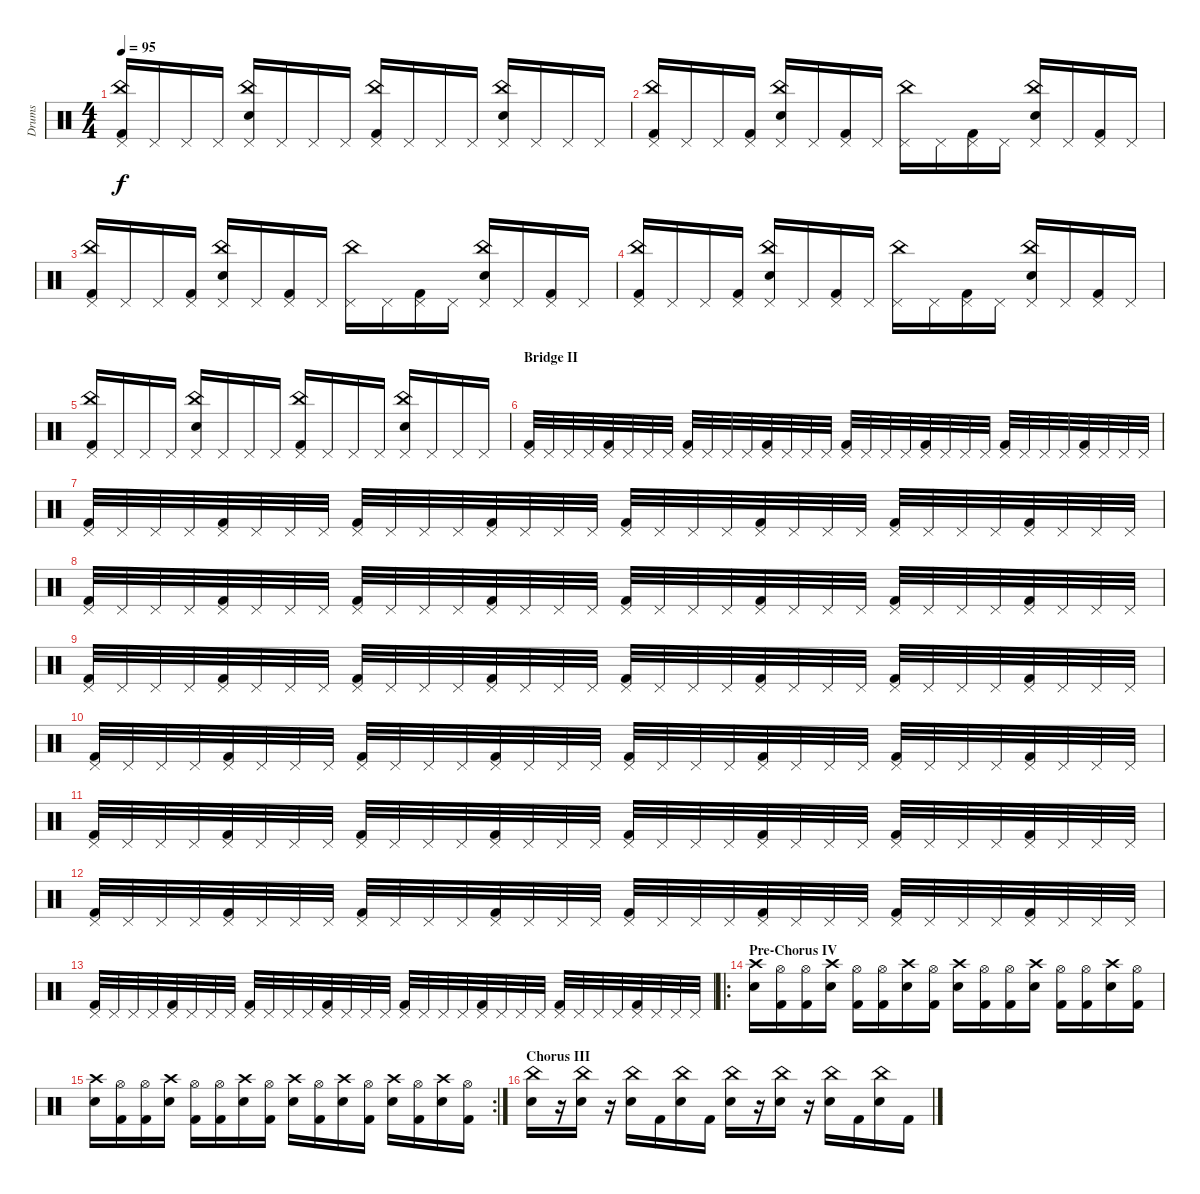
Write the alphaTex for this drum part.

\track ("Drums" "Drums") {instrument percussion}
\staff {score}
\articulation defaults
\ts (4 4)
\tempo 95
\clef neutral
\ks c
("Pedal Hi-Hat (hit)" "China (hit)" "Kick (hit) 2").16{dy f} "Pedal Hi-Hat (hit)".16 "Pedal Hi-Hat (hit)".16 "Pedal Hi-Hat (hit)".16 ("Pedal Hi-Hat (hit)" "China (hit)" "Electric Snare (hit)").16 "Pedal Hi-Hat (hit)".16 "Pedal Hi-Hat (hit)".16 "Pedal Hi-Hat (hit)".16 ("Pedal Hi-Hat (hit)" "China (hit)" "Kick (hit) 2").16 "Pedal Hi-Hat (hit)".16 "Pedal Hi-Hat (hit)".16 "Pedal Hi-Hat (hit)".16 ("Pedal Hi-Hat (hit)" "China (hit)" "Electric Snare (hit)").16 "Pedal Hi-Hat (hit)".16 "Pedal Hi-Hat (hit)".16 "Pedal Hi-Hat (hit)".16 |
("Pedal Hi-Hat (hit)" "China (hit)" "Kick (hit) 2").16 "Pedal Hi-Hat (hit)".16 "Pedal Hi-Hat (hit)".16 ("Pedal Hi-Hat (hit)" "Kick (hit) 2").16 ("Pedal Hi-Hat (hit)" "China (hit)" "Electric Snare (hit)").16 "Pedal Hi-Hat (hit)".16 ("Pedal Hi-Hat (hit)" "Kick (hit) 2").16 "Pedal Hi-Hat (hit)".16 ("Pedal Hi-Hat (hit)" "China (hit)").16 "Pedal Hi-Hat (hit)".16 ("Pedal Hi-Hat (hit)" "Kick (hit) 2").16 "Pedal Hi-Hat (hit)".16 ("Pedal Hi-Hat (hit)" "China (hit)" "Electric Snare (hit)").16 "Pedal Hi-Hat (hit)".16 ("Pedal Hi-Hat (hit)" "Kick (hit) 2").16 "Pedal Hi-Hat (hit)".16 |
("Pedal Hi-Hat (hit)" "China (hit)" "Kick (hit) 2").16 "Pedal Hi-Hat (hit)".16 "Pedal Hi-Hat (hit)".16 ("Pedal Hi-Hat (hit)" "Kick (hit) 2").16 ("Pedal Hi-Hat (hit)" "China (hit)" "Electric Snare (hit)").16 "Pedal Hi-Hat (hit)".16 ("Pedal Hi-Hat (hit)" "Kick (hit) 2").16 "Pedal Hi-Hat (hit)".16 ("Pedal Hi-Hat (hit)" "China (hit)").16 "Pedal Hi-Hat (hit)".16 ("Pedal Hi-Hat (hit)" "Kick (hit) 2").16 "Pedal Hi-Hat (hit)".16 ("Pedal Hi-Hat (hit)" "China (hit)" "Electric Snare (hit)").16 "Pedal Hi-Hat (hit)".16 ("Pedal Hi-Hat (hit)" "Kick (hit) 2").16 "Pedal Hi-Hat (hit)".16 |
("Pedal Hi-Hat (hit)" "China (hit)" "Kick (hit) 2").16 "Pedal Hi-Hat (hit)".16 "Pedal Hi-Hat (hit)".16 ("Pedal Hi-Hat (hit)" "Kick (hit) 2").16 ("Pedal Hi-Hat (hit)" "China (hit)" "Electric Snare (hit)").16 "Pedal Hi-Hat (hit)".16 ("Pedal Hi-Hat (hit)" "Kick (hit) 2").16 "Pedal Hi-Hat (hit)".16 ("Pedal Hi-Hat (hit)" "China (hit)").16 "Pedal Hi-Hat (hit)".16 ("Pedal Hi-Hat (hit)" "Kick (hit) 2").16 "Pedal Hi-Hat (hit)".16 ("Pedal Hi-Hat (hit)" "China (hit)" "Electric Snare (hit)").16 "Pedal Hi-Hat (hit)".16 ("Pedal Hi-Hat (hit)" "Kick (hit) 2").16 "Pedal Hi-Hat (hit)".16 |
("Pedal Hi-Hat (hit)" "China (hit)" "Kick (hit) 2").16 "Pedal Hi-Hat (hit)".16 "Pedal Hi-Hat (hit)".16 "Pedal Hi-Hat (hit)".16 ("Pedal Hi-Hat (hit)" "China (hit)" "Electric Snare (hit)").16 "Pedal Hi-Hat (hit)".16 "Pedal Hi-Hat (hit)".16 "Pedal Hi-Hat (hit)".16 ("Pedal Hi-Hat (hit)" "China (hit)" "Kick (hit) 2").16 "Pedal Hi-Hat (hit)".16 "Pedal Hi-Hat (hit)".16 "Pedal Hi-Hat (hit)".16 ("Pedal Hi-Hat (hit)" "China (hit)" "Electric Snare (hit)").16 "Pedal Hi-Hat (hit)".16 "Pedal Hi-Hat (hit)".16 "Pedal Hi-Hat (hit)".16 |
\section ("" "Bridge II")
("Pedal Hi-Hat (hit)" "Kick (hit) 2").32 "Pedal Hi-Hat (hit)".32 "Pedal Hi-Hat (hit)".32 "Pedal Hi-Hat (hit)".32 ("Pedal Hi-Hat (hit)" "Kick (hit) 2").32 "Pedal Hi-Hat (hit)".32 "Pedal Hi-Hat (hit)".32 "Pedal Hi-Hat (hit)".32 ("Pedal Hi-Hat (hit)" "Kick (hit) 2").32 "Pedal Hi-Hat (hit)".32 "Pedal Hi-Hat (hit)".32 "Pedal Hi-Hat (hit)".32 ("Pedal Hi-Hat (hit)" "Kick (hit) 2").32 "Pedal Hi-Hat (hit)".32 "Pedal Hi-Hat (hit)".32 "Pedal Hi-Hat (hit)".32 ("Pedal Hi-Hat (hit)" "Kick (hit) 2").32 "Pedal Hi-Hat (hit)".32 "Pedal Hi-Hat (hit)".32 "Pedal Hi-Hat (hit)".32 ("Pedal Hi-Hat (hit)" "Kick (hit) 2").32 "Pedal Hi-Hat (hit)".32 "Pedal Hi-Hat (hit)".32 "Pedal Hi-Hat (hit)".32 ("Pedal Hi-Hat (hit)" "Kick (hit) 2").32 "Pedal Hi-Hat (hit)".32 "Pedal Hi-Hat (hit)".32 "Pedal Hi-Hat (hit)".32 ("Pedal Hi-Hat (hit)" "Kick (hit) 2").32 "Pedal Hi-Hat (hit)".32 "Pedal Hi-Hat (hit)".32 "Pedal Hi-Hat (hit)".32 |
("Pedal Hi-Hat (hit)" "Kick (hit) 2").32 "Pedal Hi-Hat (hit)".32 "Pedal Hi-Hat (hit)".32 "Pedal Hi-Hat (hit)".32 ("Pedal Hi-Hat (hit)" "Kick (hit) 2").32 "Pedal Hi-Hat (hit)".32 "Pedal Hi-Hat (hit)".32 "Pedal Hi-Hat (hit)".32 ("Pedal Hi-Hat (hit)" "Kick (hit) 2").32 "Pedal Hi-Hat (hit)".32 "Pedal Hi-Hat (hit)".32 "Pedal Hi-Hat (hit)".32 ("Pedal Hi-Hat (hit)" "Kick (hit) 2").32 "Pedal Hi-Hat (hit)".32 "Pedal Hi-Hat (hit)".32 "Pedal Hi-Hat (hit)".32 ("Pedal Hi-Hat (hit)" "Kick (hit) 2").32 "Pedal Hi-Hat (hit)".32 "Pedal Hi-Hat (hit)".32 "Pedal Hi-Hat (hit)".32 ("Pedal Hi-Hat (hit)" "Kick (hit) 2").32 "Pedal Hi-Hat (hit)".32 "Pedal Hi-Hat (hit)".32 "Pedal Hi-Hat (hit)".32 ("Pedal Hi-Hat (hit)" "Kick (hit) 2").32 "Pedal Hi-Hat (hit)".32 "Pedal Hi-Hat (hit)".32 "Pedal Hi-Hat (hit)".32 ("Pedal Hi-Hat (hit)" "Kick (hit) 2").32 "Pedal Hi-Hat (hit)".32 "Pedal Hi-Hat (hit)".32 "Pedal Hi-Hat (hit)".32 |
("Pedal Hi-Hat (hit)" "Kick (hit) 2").32 "Pedal Hi-Hat (hit)".32 "Pedal Hi-Hat (hit)".32 "Pedal Hi-Hat (hit)".32 ("Pedal Hi-Hat (hit)" "Kick (hit) 2").32 "Pedal Hi-Hat (hit)".32 "Pedal Hi-Hat (hit)".32 "Pedal Hi-Hat (hit)".32 ("Pedal Hi-Hat (hit)" "Kick (hit) 2").32 "Pedal Hi-Hat (hit)".32 "Pedal Hi-Hat (hit)".32 "Pedal Hi-Hat (hit)".32 ("Pedal Hi-Hat (hit)" "Kick (hit) 2").32 "Pedal Hi-Hat (hit)".32 "Pedal Hi-Hat (hit)".32 "Pedal Hi-Hat (hit)".32 ("Pedal Hi-Hat (hit)" "Kick (hit) 2").32 "Pedal Hi-Hat (hit)".32 "Pedal Hi-Hat (hit)".32 "Pedal Hi-Hat (hit)".32 ("Pedal Hi-Hat (hit)" "Kick (hit) 2").32 "Pedal Hi-Hat (hit)".32 "Pedal Hi-Hat (hit)".32 "Pedal Hi-Hat (hit)".32 ("Pedal Hi-Hat (hit)" "Kick (hit) 2").32 "Pedal Hi-Hat (hit)".32 "Pedal Hi-Hat (hit)".32 "Pedal Hi-Hat (hit)".32 ("Pedal Hi-Hat (hit)" "Kick (hit) 2").32 "Pedal Hi-Hat (hit)".32 "Pedal Hi-Hat (hit)".32 "Pedal Hi-Hat (hit)".32 |
("Pedal Hi-Hat (hit)" "Kick (hit) 2").32 "Pedal Hi-Hat (hit)".32 "Pedal Hi-Hat (hit)".32 "Pedal Hi-Hat (hit)".32 ("Pedal Hi-Hat (hit)" "Kick (hit) 2").32 "Pedal Hi-Hat (hit)".32 "Pedal Hi-Hat (hit)".32 "Pedal Hi-Hat (hit)".32 ("Pedal Hi-Hat (hit)" "Kick (hit) 2").32 "Pedal Hi-Hat (hit)".32 "Pedal Hi-Hat (hit)".32 "Pedal Hi-Hat (hit)".32 ("Pedal Hi-Hat (hit)" "Kick (hit) 2").32 "Pedal Hi-Hat (hit)".32 "Pedal Hi-Hat (hit)".32 "Pedal Hi-Hat (hit)".32 ("Pedal Hi-Hat (hit)" "Kick (hit) 2").32 "Pedal Hi-Hat (hit)".32 "Pedal Hi-Hat (hit)".32 "Pedal Hi-Hat (hit)".32 ("Pedal Hi-Hat (hit)" "Kick (hit) 2").32 "Pedal Hi-Hat (hit)".32 "Pedal Hi-Hat (hit)".32 "Pedal Hi-Hat (hit)".32 ("Pedal Hi-Hat (hit)" "Kick (hit) 2").32 "Pedal Hi-Hat (hit)".32 "Pedal Hi-Hat (hit)".32 "Pedal Hi-Hat (hit)".32 ("Pedal Hi-Hat (hit)" "Kick (hit) 2").32 "Pedal Hi-Hat (hit)".32 "Pedal Hi-Hat (hit)".32 "Pedal Hi-Hat (hit)".32 |
("Pedal Hi-Hat (hit)" "Kick (hit) 2").32 "Pedal Hi-Hat (hit)".32 "Pedal Hi-Hat (hit)".32 "Pedal Hi-Hat (hit)".32 ("Pedal Hi-Hat (hit)" "Kick (hit) 2").32 "Pedal Hi-Hat (hit)".32 "Pedal Hi-Hat (hit)".32 "Pedal Hi-Hat (hit)".32 ("Pedal Hi-Hat (hit)" "Kick (hit) 2").32 "Pedal Hi-Hat (hit)".32 "Pedal Hi-Hat (hit)".32 "Pedal Hi-Hat (hit)".32 ("Pedal Hi-Hat (hit)" "Kick (hit) 2").32 "Pedal Hi-Hat (hit)".32 "Pedal Hi-Hat (hit)".32 "Pedal Hi-Hat (hit)".32 ("Pedal Hi-Hat (hit)" "Kick (hit) 2").32 "Pedal Hi-Hat (hit)".32 "Pedal Hi-Hat (hit)".32 "Pedal Hi-Hat (hit)".32 ("Pedal Hi-Hat (hit)" "Kick (hit) 2").32 "Pedal Hi-Hat (hit)".32 "Pedal Hi-Hat (hit)".32 "Pedal Hi-Hat (hit)".32 ("Pedal Hi-Hat (hit)" "Kick (hit) 2").32 "Pedal Hi-Hat (hit)".32 "Pedal Hi-Hat (hit)".32 "Pedal Hi-Hat (hit)".32 ("Pedal Hi-Hat (hit)" "Kick (hit) 2").32 "Pedal Hi-Hat (hit)".32 "Pedal Hi-Hat (hit)".32 "Pedal Hi-Hat (hit)".32 |
("Pedal Hi-Hat (hit)" "Kick (hit) 2").32 "Pedal Hi-Hat (hit)".32 "Pedal Hi-Hat (hit)".32 "Pedal Hi-Hat (hit)".32 ("Pedal Hi-Hat (hit)" "Kick (hit) 2").32 "Pedal Hi-Hat (hit)".32 "Pedal Hi-Hat (hit)".32 "Pedal Hi-Hat (hit)".32 ("Pedal Hi-Hat (hit)" "Kick (hit) 2").32 "Pedal Hi-Hat (hit)".32 "Pedal Hi-Hat (hit)".32 "Pedal Hi-Hat (hit)".32 ("Pedal Hi-Hat (hit)" "Kick (hit) 2").32 "Pedal Hi-Hat (hit)".32 "Pedal Hi-Hat (hit)".32 "Pedal Hi-Hat (hit)".32 ("Pedal Hi-Hat (hit)" "Kick (hit) 2").32 "Pedal Hi-Hat (hit)".32 "Pedal Hi-Hat (hit)".32 "Pedal Hi-Hat (hit)".32 ("Pedal Hi-Hat (hit)" "Kick (hit) 2").32 "Pedal Hi-Hat (hit)".32 "Pedal Hi-Hat (hit)".32 "Pedal Hi-Hat (hit)".32 ("Pedal Hi-Hat (hit)" "Kick (hit) 2").32 "Pedal Hi-Hat (hit)".32 "Pedal Hi-Hat (hit)".32 "Pedal Hi-Hat (hit)".32 ("Pedal Hi-Hat (hit)" "Kick (hit) 2").32 "Pedal Hi-Hat (hit)".32 "Pedal Hi-Hat (hit)".32 "Pedal Hi-Hat (hit)".32 |
("Pedal Hi-Hat (hit)" "Kick (hit) 2").32 "Pedal Hi-Hat (hit)".32 "Pedal Hi-Hat (hit)".32 "Pedal Hi-Hat (hit)".32 ("Pedal Hi-Hat (hit)" "Kick (hit) 2").32 "Pedal Hi-Hat (hit)".32 "Pedal Hi-Hat (hit)".32 "Pedal Hi-Hat (hit)".32 ("Pedal Hi-Hat (hit)" "Kick (hit) 2").32 "Pedal Hi-Hat (hit)".32 "Pedal Hi-Hat (hit)".32 "Pedal Hi-Hat (hit)".32 ("Pedal Hi-Hat (hit)" "Kick (hit) 2").32 "Pedal Hi-Hat (hit)".32 "Pedal Hi-Hat (hit)".32 "Pedal Hi-Hat (hit)".32 ("Pedal Hi-Hat (hit)" "Kick (hit) 2").32 "Pedal Hi-Hat (hit)".32 "Pedal Hi-Hat (hit)".32 "Pedal Hi-Hat (hit)".32 ("Pedal Hi-Hat (hit)" "Kick (hit) 2").32 "Pedal Hi-Hat (hit)".32 "Pedal Hi-Hat (hit)".32 "Pedal Hi-Hat (hit)".32 ("Pedal Hi-Hat (hit)" "Kick (hit) 2").32 "Pedal Hi-Hat (hit)".32 "Pedal Hi-Hat (hit)".32 "Pedal Hi-Hat (hit)".32 ("Pedal Hi-Hat (hit)" "Kick (hit) 2").32 "Pedal Hi-Hat (hit)".32 "Pedal Hi-Hat (hit)".32 "Pedal Hi-Hat (hit)".32 |
("Pedal Hi-Hat (hit)" "Kick (hit) 2").32 "Pedal Hi-Hat (hit)".32 "Pedal Hi-Hat (hit)".32 "Pedal Hi-Hat (hit)".32 ("Pedal Hi-Hat (hit)" "Kick (hit) 2").32 "Pedal Hi-Hat (hit)".32 "Pedal Hi-Hat (hit)".32 "Pedal Hi-Hat (hit)".32 ("Pedal Hi-Hat (hit)" "Kick (hit) 2").32 "Pedal Hi-Hat (hit)".32 "Pedal Hi-Hat (hit)".32 "Pedal Hi-Hat (hit)".32 ("Pedal Hi-Hat (hit)" "Kick (hit) 2").32 "Pedal Hi-Hat (hit)".32 "Pedal Hi-Hat (hit)".32 "Pedal Hi-Hat (hit)".32 ("Pedal Hi-Hat (hit)" "Kick (hit) 2").32 "Pedal Hi-Hat (hit)".32 "Pedal Hi-Hat (hit)".32 "Pedal Hi-Hat (hit)".32 ("Pedal Hi-Hat (hit)" "Kick (hit) 2").32 "Pedal Hi-Hat (hit)".32 "Pedal Hi-Hat (hit)".32 "Pedal Hi-Hat (hit)".32 ("Pedal Hi-Hat (hit)" "Kick (hit) 2").32 "Pedal Hi-Hat (hit)".32 "Pedal Hi-Hat (hit)".32 "Pedal Hi-Hat (hit)".32 ("Pedal Hi-Hat (hit)" "Kick (hit) 2").32 "Pedal Hi-Hat (hit)".32 "Pedal Hi-Hat (hit)".32 "Pedal Hi-Hat (hit)".32 |
\ro
\section ("" "Pre-Chorus IV")
("Crash high (hit)" "Electric Snare (hit)").16 ("Hi-Hat (open)" "Kick (hit) 2").16 ("Hi-Hat (open)" "Kick (hit) 2").16 ("Crash high (hit)" "Electric Snare (hit)").16 ("Hi-Hat (open)" "Kick (hit) 2").16 ("Hi-Hat (open)" "Kick (hit) 2").16 ("Crash high (hit)" "Electric Snare (hit)").16 ("Hi-Hat (open)" "Kick (hit) 2").16 ("Crash high (hit)" "Electric Snare (hit)").16 ("Hi-Hat (open)" "Kick (hit) 2").16 ("Hi-Hat (open)" "Kick (hit) 2").16 ("Crash high (hit)" "Electric Snare (hit)").16 ("Hi-Hat (open)" "Kick (hit) 2").16 ("Hi-Hat (open)" "Kick (hit) 2").16 ("Crash high (hit)" "Electric Snare (hit)").16 ("Hi-Hat (open)" "Kick (hit) 2").16 |
\rc 2
("Crash high (hit)" "Electric Snare (hit)").16 ("Hi-Hat (open)" "Kick (hit) 2").16 ("Hi-Hat (open)" "Kick (hit) 2").16 ("Crash high (hit)" "Electric Snare (hit)").16 ("Hi-Hat (open)" "Kick (hit) 2").16 ("Hi-Hat (open)" "Kick (hit) 2").16 ("Crash high (hit)" "Electric Snare (hit)").16 ("Hi-Hat (open)" "Kick (hit) 2").16 ("Crash high (hit)" "Electric Snare (hit)").16 ("Hi-Hat (open)" "Kick (hit) 2").16 ("Crash high (hit)" "Electric Snare (hit)").16 ("Hi-Hat (open)" "Kick (hit) 2").16 ("Crash high (hit)" "Electric Snare (hit)").16 ("Hi-Hat (open)" "Kick (hit) 2").16 ("Crash high (hit)" "Electric Snare (hit)").16 ("Hi-Hat (open)" "Kick (hit) 2").16 |
\section ("" "Chorus III")
("China (hit)" "Electric Snare (hit)").16 r.16 ("China (hit)" "Electric Snare (hit)").16 r.16 ("China (hit)" "Electric Snare (hit)").16 "Kick (hit) 2".16 ("China (hit)" "Electric Snare (hit)").16 "Kick (hit) 2".16 ("China (hit)" "Electric Snare (hit)").16 r.16 ("China (hit)" "Electric Snare (hit)").16 r.16 ("China (hit)" "Electric Snare (hit)").16 "Kick (hit) 2".16 ("China (hit)" "Electric Snare (hit)").16 "Kick (hit) 2".16
